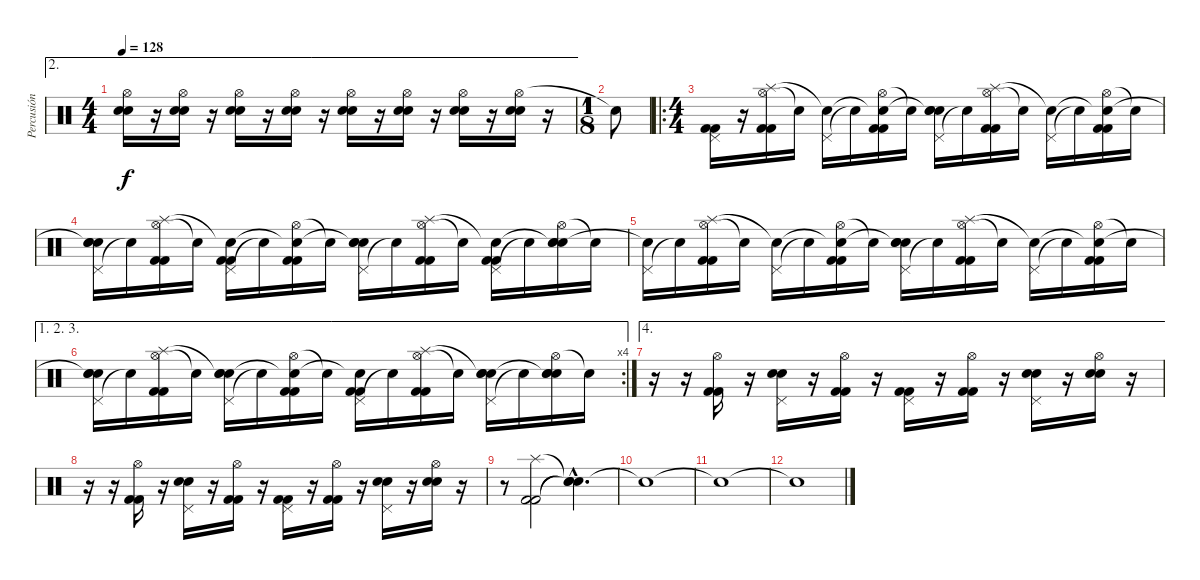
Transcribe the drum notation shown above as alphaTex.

\track ("Percusión" "Percusión") {instrument percussion}
\staff {score}
\articulation defaults
\ae 2
\ts (4 4)
\tempo 128
\clef neutral
\ks c
("Hi-Hat (open)" "Electric Snare (hit)" "Electric Snare (hit)").16{dy f} r.16 ("Hi-Hat (open)" "Electric Snare (hit)" "Electric Snare (hit)").16 r.16 ("Hi-Hat (open)" "Electric Snare (hit)" "Electric Snare (hit)").16 r.16 ("Hi-Hat (open)" "Electric Snare (hit)" "Electric Snare (hit)").16 r.16 ("Hi-Hat (open)" "Electric Snare (hit)" "Electric Snare (hit)").16 r.16 ("Hi-Hat (open)" "Electric Snare (hit)" "Electric Snare (hit)").16 r.16 ("Hi-Hat (open)" "Electric Snare (hit)" "Electric Snare (hit)").16 r.16 ("Hi-Hat (open)" "Electric Snare (hit)" "Electric Snare (hit)").16 r.16 |
\ts (1 8)
"Snare (hit)"{t}.8 |
\ro
\ts (4 4)
("Pedal Hi-Hat (hit)" "Kick (hit) 2" "Kick (hit) 2").16 r.16 ("Hi-Hat (open)" "Splash (hit)" "Kick (hit) 2" "Kick (hit) 2").16 "Snare (hit)"{t}.16 ("Pedal Hi-Hat (hit)" "Snare (hit)"{t}).16 "Snare (hit)"{t}.16 ("Hi-Hat (open)" "Snare (hit)"{t} "Kick (hit) 2" "Kick (hit) 2").16 "Snare (hit)"{t}.16 ("Pedal Hi-Hat (hit)" "Snare (hit)"{t} "Electric Snare (hit)" "Electric Snare (hit)").16 "Snare (hit)"{t}.16 ("Hi-Hat (open)" "Splash (hit)" "Kick (hit) 2" "Kick (hit) 2").16 "Snare (hit)"{t}.16 ("Pedal Hi-Hat (hit)" "Snare (hit)"{t}).16 "Snare (hit)"{t}.16 ("Hi-Hat (open)" "Snare (hit)"{t} "Kick (hit) 2" "Kick (hit) 2").16 "Snare (hit)"{t}.16 |
("Pedal Hi-Hat (hit)" "Snare (hit)"{t} "Electric Snare (hit)" "Electric Snare (hit)").16 "Snare (hit)"{t}.16 ("Hi-Hat (open)" "Splash (hit)" "Kick (hit) 2" "Kick (hit) 2").16 "Snare (hit)"{t}.16 ("Pedal Hi-Hat (hit)" "Snare (hit)"{t} "Kick (hit) 2" "Kick (hit) 2").16 "Snare (hit)"{t}.16 ("Hi-Hat (open)" "Snare (hit)"{t} "Kick (hit) 2" "Kick (hit) 2").16 "Snare (hit)"{t}.16 ("Pedal Hi-Hat (hit)" "Snare (hit)"{t} "Electric Snare (hit)" "Electric Snare (hit)").16 "Snare (hit)"{t}.16 ("Hi-Hat (open)" "Splash (hit)" "Kick (hit) 2" "Kick (hit) 2").16 "Snare (hit)"{t}.16 ("Pedal Hi-Hat (hit)" "Snare (hit)"{t} "Kick (hit) 2" "Kick (hit) 2").16 "Snare (hit)"{t}.16 ("Hi-Hat (open)" "Snare (hit)"{t} "Electric Snare (hit)" "Electric Snare (hit)").16 "Snare (hit)"{t}.16 |
("Pedal Hi-Hat (hit)" "Snare (hit)"{t}).16 "Snare (hit)"{t}.16 ("Hi-Hat (open)" "Splash (hit)" "Kick (hit) 2" "Kick (hit) 2").16 "Snare (hit)"{t}.16 ("Pedal Hi-Hat (hit)" "Snare (hit)"{t}).16 "Snare (hit)"{t}.16 ("Hi-Hat (open)" "Snare (hit)"{t} "Kick (hit) 2" "Kick (hit) 2").16 "Snare (hit)"{t}.16 ("Pedal Hi-Hat (hit)" "Snare (hit)"{t} "Electric Snare (hit)" "Electric Snare (hit)").16 "Snare (hit)"{t}.16 ("Hi-Hat (open)" "Splash (hit)" "Kick (hit) 2" "Kick (hit) 2").16 "Snare (hit)"{t}.16 ("Pedal Hi-Hat (hit)" "Snare (hit)"{t}).16 "Snare (hit)"{t}.16 ("Hi-Hat (open)" "Snare (hit)"{t} "Kick (hit) 2" "Kick (hit) 2").16 "Snare (hit)"{t}.16 |
\ae (1 2 3)
\rc 4
("Pedal Hi-Hat (hit)" "Electric Snare (hit)"{t} "Electric Snare (hit)" "Electric Snare (hit)").16 "Snare (hit)"{t}.16 ("Hi-Hat (open)" "Splash (hit)" "Kick (hit) 2" "Kick (hit) 2").16 "Snare (hit)"{t}.16 ("Pedal Hi-Hat (hit)" "Snare (hit)"{t} "Electric Snare (hit)" "Electric Snare (hit)").16 "Snare (hit)"{t}.16 ("Hi-Hat (open)" "Snare (hit)"{t} "Kick (hit) 2" "Kick (hit) 2").16 "Snare (hit)"{t}.16 ("Pedal Hi-Hat (hit)" "Snare (hit)"{t} "Kick (hit) 2" "Kick (hit) 2").16 "Snare (hit)"{t}.16 ("Hi-Hat (open)" "Splash (hit)" "Kick (hit) 2" "Kick (hit) 2").16 "Snare (hit)"{t}.16 ("Pedal Hi-Hat (hit)" "Snare (hit)"{t} "Electric Snare (hit)" "Electric Snare (hit)").16 "Snare (hit)"{t}.16 ("Hi-Hat (open)" "Snare (hit)"{t} "Electric Snare (hit)" "Electric Snare (hit)").16 "Snare (hit)"{t}.16 |
\ae 4
r.16 r.16 ("Hi-Hat (open)" "Kick (hit) 2" "Kick (hit) 2").16 r.16 ("Pedal Hi-Hat (hit)" "Electric Snare (hit)" "Electric Snare (hit)").16 r.16 ("Hi-Hat (open)" "Kick (hit) 2" "Kick (hit) 2").16 r.16 ("Pedal Hi-Hat (hit)" "Kick (hit) 2" "Kick (hit) 2").16 r.16 ("Hi-Hat (open)" "Kick (hit) 2" "Kick (hit) 2").16 r.16 ("Pedal Hi-Hat (hit)" "Electric Snare (hit)" "Electric Snare (hit)").16 r.16 ("Hi-Hat (open)" "Electric Snare (hit)" "Electric Snare (hit)").16 r.16 |
r.16 r.16 ("Hi-Hat (open)" "Kick (hit) 2" "Kick (hit) 2").16 r.16 ("Pedal Hi-Hat (hit)" "Electric Snare (hit)" "Electric Snare (hit)").16 r.16 ("Hi-Hat (open)" "Kick (hit) 2" "Kick (hit) 2").16 r.16 ("Pedal Hi-Hat (hit)" "Kick (hit) 2" "Kick (hit) 2").16 r.16 ("Hi-Hat (open)" "Kick (hit) 2" "Kick (hit) 2").16 r.16 ("Pedal Hi-Hat (hit)" "Electric Snare (hit)" "Electric Snare (hit)").16 r.16 ("Hi-Hat (open)" "Electric Snare (hit)" "Electric Snare (hit)").16 r.16 |
r.8 ("Splash (hit)" "Kick (hit) 2" "Kick (hit) 2").2 ("Snare (hit)"{hac t} "Snare (hit)"{hac t} "Snare (hit)"{hac t}).4{d} |
"Snare (hit)"{t}.1 |
"Snare (hit)"{t}.1 |
"Snare (hit)"{t}.1
